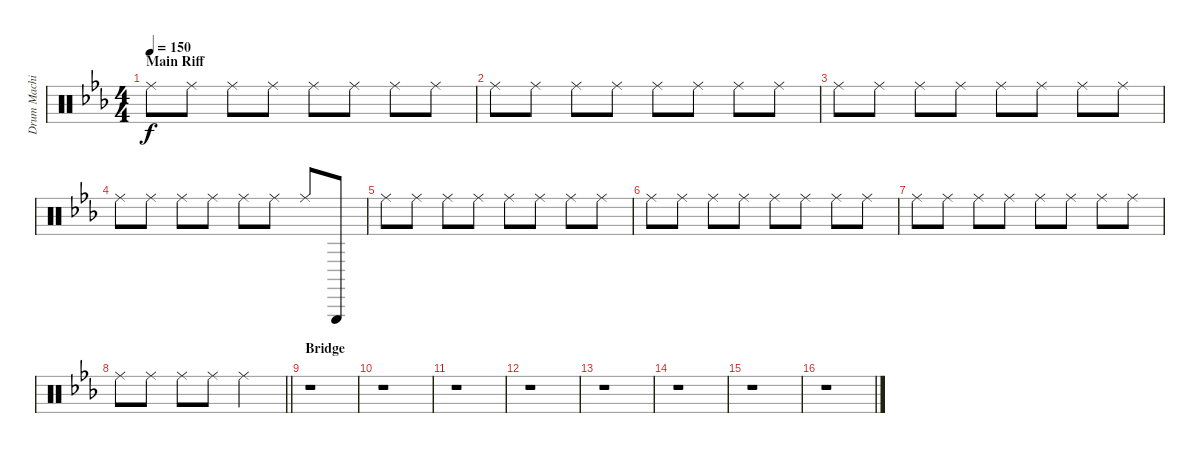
\track ("Drum Machine" "Drum Machi") {instrument percussion}
\staff {score}
\articulation defaults
\ts (4 4)
\section ("" "Main Riff")
\tempo 150
\clef neutral
\ks eb "Ride (middle)".8{dy f} "Ride (middle)".8 "Ride (middle)".8 "Ride (middle)".8 "Ride (middle)".8 "Ride (middle)".8 "Ride (middle)".8 "Ride (middle)".8
|
"Ride (middle)".8 "Ride (middle)".8 "Ride (middle)".8 "Ride (middle)".8 "Ride (middle)".8 "Ride (middle)".8 "Ride (middle)".8 "Ride (middle)".8 |
"Ride (middle)".8 "Ride (middle)".8 "Ride (middle)".8 "Ride (middle)".8 "Ride (middle)".8 "Ride (middle)".8 "Ride (middle)".8 "Ride (middle)".8 |
"Ride (middle)".8 "Ride (middle)".8 "Ride (middle)".8 "Ride (middle)".8 "Ride (middle)".8 "Ride (middle)".8 "Ride (middle)".8 "Triangle (hit)".8 |
"Ride (middle)".8 "Ride (middle)".8 "Ride (middle)".8 "Ride (middle)".8 "Ride (middle)".8 "Ride (middle)".8 "Ride (middle)".8 "Ride (middle)".8 |
"Ride (middle)".8 "Ride (middle)".8 "Ride (middle)".8 "Ride (middle)".8 "Ride (middle)".8 "Ride (middle)".8 "Ride (middle)".8 "Ride (middle)".8 |
"Ride (middle)".8 "Ride (middle)".8 "Ride (middle)".8 "Ride (middle)".8 "Ride (middle)".8 "Ride (middle)".8 "Ride (middle)".8 "Ride (middle)".8 |
\barLineRight lightlight "Ride (middle)".8 "Ride (middle)".8 "Ride (middle)".8 "Ride (middle)".8 "Ride (middle)".2
|
\section ("" "Bridge")
r.1 |
r.1 |
r.1 |
r.1 |
r.1 |
r.1 |
r.1 |
r.1
